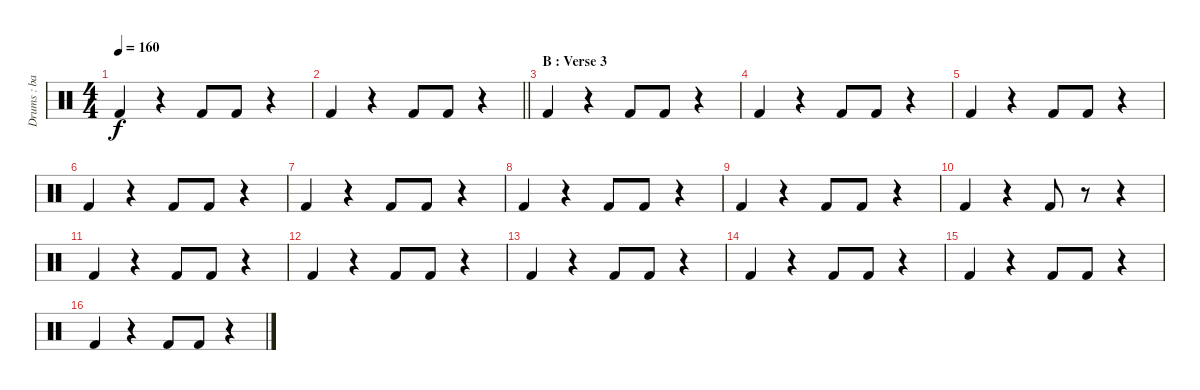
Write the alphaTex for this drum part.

\track ("Drums : bass drums" "Drums : ba") {instrument percussion}
\staff {score}
\articulation defaults
\ts (4 4)
\tempo 160
\clef neutral
\ks c "Kick (hit) 2".4{dy f}
r.4 "Kick (hit) 2".8 "Kick (hit) 2".8 r.4 |
\barLineRight lightlight "Kick (hit) 2".4
r.4 "Kick (hit) 2".8 "Kick (hit) 2".8 r.4 |
\section ("" "B : Verse 3")
"Kick (hit) 2".4 r.4 "Kick (hit) 2".8 "Kick (hit) 2".8 r.4 |
"Kick (hit) 2".4 r.4 "Kick (hit) 2".8 "Kick (hit) 2".8 r.4 |
"Kick (hit) 2".4 r.4 "Kick (hit) 2".8 "Kick (hit) 2".8 r.4 |
"Kick (hit) 2".4 r.4 "Kick (hit) 2".8 "Kick (hit) 2".8 r.4 |
"Kick (hit) 2".4 r.4 "Kick (hit) 2".8 "Kick (hit) 2".8 r.4 |
"Kick (hit) 2".4 r.4 "Kick (hit) 2".8 "Kick (hit) 2".8 r.4 |
"Kick (hit) 2".4 r.4 "Kick (hit) 2".8 "Kick (hit) 2".8 r.4 |
"Kick (hit) 2".4 r.4 "Kick (hit) 2".8 r.8 r.4 |
"Kick (hit) 2".4 r.4 "Kick (hit) 2".8 "Kick (hit) 2".8 r.4 |
"Kick (hit) 2".4 r.4 "Kick (hit) 2".8 "Kick (hit) 2".8 r.4 |
"Kick (hit) 2".4 r.4 "Kick (hit) 2".8 "Kick (hit) 2".8 r.4 |
"Kick (hit) 2".4 r.4 "Kick (hit) 2".8 "Kick (hit) 2".8 r.4 |
"Kick (hit) 2".4 r.4 "Kick (hit) 2".8 "Kick (hit) 2".8 r.4 |
"Kick (hit) 2".4 r.4 "Kick (hit) 2".8 "Kick (hit) 2".8 r.4
